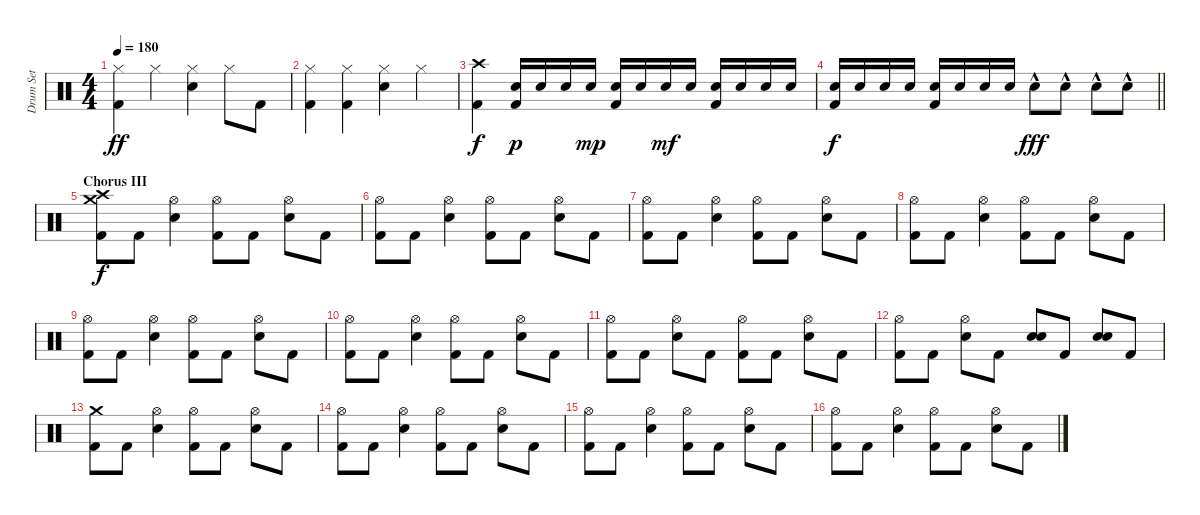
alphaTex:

\track ("Drum Set" "Drum Set") {instrument percussion}
\staff {score}
\articulation defaults
\ts (4 4)
\tempo 180
\clef neutral
\ks c
("Hi-Hat (closed)" "Kick (hit) 2").4{dy ff} "Hi-Hat (closed)".4 ("Hi-Hat (closed)" "Snare (hit) 2").4 "Hi-Hat (closed)".8 "Kick (hit) 2".8 |
("Hi-Hat (closed)" "Kick (hit) 2").4 ("Hi-Hat (closed)" "Kick (hit) 2").4 ("Hi-Hat (closed)" "Snare (hit) 2").4 "Hi-Hat (closed)".4 |
("Crash high (hit)" "Kick (hit) 2").4{dy f} ("Snare (hit) 2" "Kick (hit) 2").16{dy p} "Snare (hit) 2".16 "Snare (hit) 2".16 "Snare (hit) 2".16{dy mp} ("Snare (hit) 2" "Kick (hit) 2").16 "Snare (hit) 2".16 "Snare (hit) 2".16{dy mf} "Snare (hit) 2".16 ("Snare (hit) 2" "Kick (hit) 2").16 "Snare (hit) 2".16 "Snare (hit) 2".16 "Snare (hit) 2".16 |
\barLineRight lightlight
("Snare (hit) 2" "Kick (hit) 2").16{dy f} "Snare (hit) 2".16 "Snare (hit) 2".16 "Snare (hit) 2".16 ("Snare (hit) 2" "Kick (hit) 2").16 "Snare (hit) 2".16 "Snare (hit) 2".16 "Snare (hit) 2".16 "Snare (hit) 2"{hac}.8{dy fff} "Snare (hit) 2"{hac}.8 "Snare (hit) 2"{hac}.8 "Snare (hit) 2"{hac}.8 |
\section ("" "Chorus III")
("Crash medium (hit)" "Crash high (hit)" "Kick (hit) 2").8{dy f} "Kick (hit) 2".8 ("Hi-Hat (open)" "Snare (hit) 2").4 ("Hi-Hat (open)" "Kick (hit) 2").8 "Kick (hit) 2".8 ("Hi-Hat (open)" "Snare (hit) 2").8 "Kick (hit) 2".8 |
("Hi-Hat (open)" "Kick (hit) 2").8 "Kick (hit) 2".8 ("Hi-Hat (open)" "Snare (hit) 2").4 ("Hi-Hat (open)" "Kick (hit) 2").8 "Kick (hit) 2".8 ("Hi-Hat (open)" "Snare (hit) 2").8 "Kick (hit) 2".8 |
("Hi-Hat (open)" "Kick (hit) 2").8 "Kick (hit) 2".8 ("Hi-Hat (open)" "Snare (hit) 2").4 ("Hi-Hat (open)" "Kick (hit) 2").8 "Kick (hit) 2".8 ("Hi-Hat (open)" "Snare (hit) 2").8 "Kick (hit) 2".8 |
("Hi-Hat (open)" "Kick (hit) 2").8 "Kick (hit) 2".8 ("Hi-Hat (open)" "Snare (hit) 2").4 ("Hi-Hat (open)" "Kick (hit) 2").8 "Kick (hit) 2".8 ("Hi-Hat (open)" "Snare (hit) 2").8 "Kick (hit) 2".8 |
("Hi-Hat (open)" "Kick (hit) 2").8 "Kick (hit) 2".8 ("Hi-Hat (open)" "Snare (hit) 2").4 ("Hi-Hat (open)" "Kick (hit) 2").8 "Kick (hit) 2".8 ("Hi-Hat (open)" "Snare (hit) 2").8 "Kick (hit) 2".8 |
("Hi-Hat (open)" "Kick (hit) 2").8 "Kick (hit) 2".8 ("Hi-Hat (open)" "Snare (hit) 2").4 ("Hi-Hat (open)" "Kick (hit) 2").8 "Kick (hit) 2".8 ("Hi-Hat (open)" "Snare (hit) 2").8 "Kick (hit) 2".8 |
("Hi-Hat (open)" "Kick (hit) 2").8 "Kick (hit) 2".8 ("Hi-Hat (open)" "Snare (hit) 2").8 "Kick (hit) 2".8 ("Hi-Hat (open)" "Kick (hit) 2").8 "Kick (hit) 2".8 ("Hi-Hat (open)" "Snare (hit) 2").8 "Kick (hit) 2".8 |
("Hi-Hat (open)" "Kick (hit) 2").8 "Kick (hit) 2".8 ("Hi-Hat (open)" "Snare (hit) 2").8 "Kick (hit) 2".8 ("Snare (hit) 2" "Snare (hit) 2").8 "Kick (hit) 2".8 ("Snare (hit) 2" "Snare (hit) 2").8 "Kick (hit) 2".8 |
("Crash medium (hit)" "Kick (hit) 2").8 "Kick (hit) 2".8 ("Hi-Hat (open)" "Snare (hit) 2").4 ("Hi-Hat (open)" "Kick (hit) 2").8 "Kick (hit) 2".8 ("Hi-Hat (open)" "Snare (hit) 2").8 "Kick (hit) 2".8 |
("Hi-Hat (open)" "Kick (hit) 2").8 "Kick (hit) 2".8 ("Hi-Hat (open)" "Snare (hit) 2").4 ("Hi-Hat (open)" "Kick (hit) 2").8 "Kick (hit) 2".8 ("Hi-Hat (open)" "Snare (hit) 2").8 "Kick (hit) 2".8 |
("Hi-Hat (open)" "Kick (hit) 2").8 "Kick (hit) 2".8 ("Hi-Hat (open)" "Snare (hit) 2").4 ("Hi-Hat (open)" "Kick (hit) 2").8 "Kick (hit) 2".8 ("Hi-Hat (open)" "Snare (hit) 2").8 "Kick (hit) 2".8 |
("Hi-Hat (open)" "Kick (hit) 2").8 "Kick (hit) 2".8 ("Hi-Hat (open)" "Snare (hit) 2").4 ("Hi-Hat (open)" "Kick (hit) 2").8 "Kick (hit) 2".8 ("Hi-Hat (open)" "Snare (hit) 2").8 "Kick (hit) 2".8
